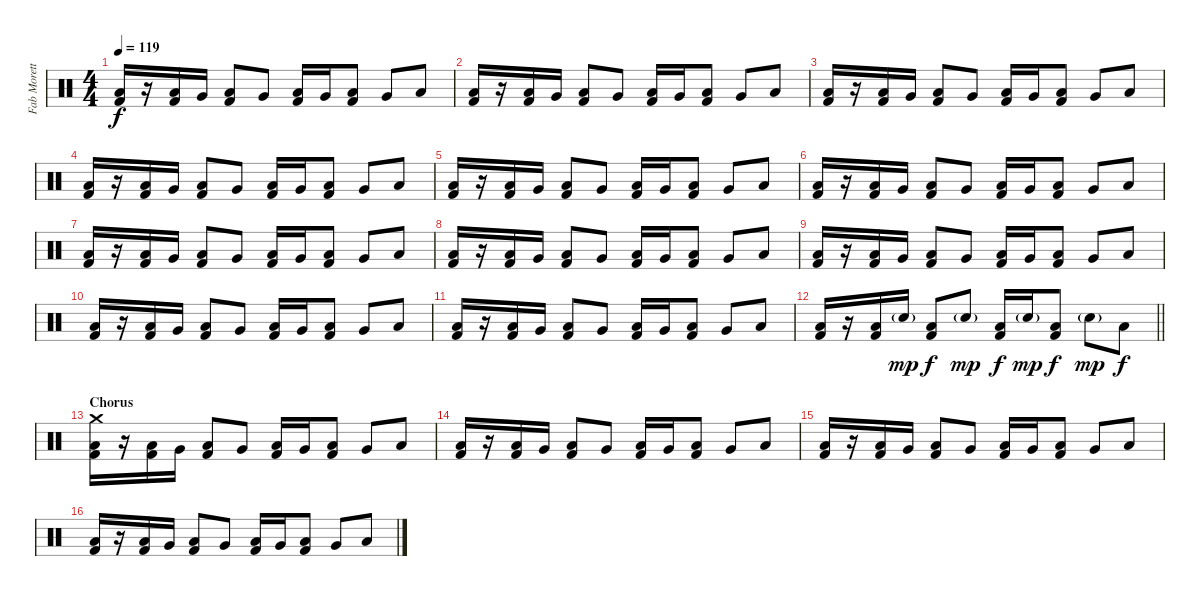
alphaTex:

\track ("Fab Moretti" "Fab Morett") {instrument percussion}
\staff {score}
\articulation defaults
\ts (4 4)
\tempo 119
\clef neutral
\ks c
("Low Floor Tom (hit)" "Kick (hit) 2").16{dy f} r.16 ("Low Floor Tom (hit)" "Kick (hit) 2").16 "Very Low Tom (hit)".16 ("Low Floor Tom (hit)" "Kick (hit) 2").8 "Very Low Tom (hit)".8 ("Low Floor Tom (hit)" "Kick (hit) 2").16 "Very Low Tom (hit)".16 ("Low Floor Tom (hit)" "Kick (hit) 2").8 "Very Low Tom (hit)".8 "Low Floor Tom (hit)".8 |
("Low Floor Tom (hit)" "Kick (hit) 2").16 r.16 ("Low Floor Tom (hit)" "Kick (hit) 2").16 "Very Low Tom (hit)".16 ("Low Floor Tom (hit)" "Kick (hit) 2").8 "Very Low Tom (hit)".8 ("Low Floor Tom (hit)" "Kick (hit) 2").16 "Very Low Tom (hit)".16 ("Low Floor Tom (hit)" "Kick (hit) 2").8 "Very Low Tom (hit)".8 "Low Floor Tom (hit)".8 |
("Low Floor Tom (hit)" "Kick (hit) 2").16 r.16 ("Low Floor Tom (hit)" "Kick (hit) 2").16 "Very Low Tom (hit)".16 ("Low Floor Tom (hit)" "Kick (hit) 2").8 "Very Low Tom (hit)".8 ("Low Floor Tom (hit)" "Kick (hit) 2").16 "Very Low Tom (hit)".16 ("Low Floor Tom (hit)" "Kick (hit) 2").8 "Very Low Tom (hit)".8 "Low Floor Tom (hit)".8 |
("Low Floor Tom (hit)" "Kick (hit) 2").16 r.16 ("Low Floor Tom (hit)" "Kick (hit) 2").16 "Very Low Tom (hit)".16 ("Low Floor Tom (hit)" "Kick (hit) 2").8 "Very Low Tom (hit)".8 ("Low Floor Tom (hit)" "Kick (hit) 2").16 "Very Low Tom (hit)".16 ("Low Floor Tom (hit)" "Kick (hit) 2").8 "Very Low Tom (hit)".8 "Low Floor Tom (hit)".8 |
("Low Floor Tom (hit)" "Kick (hit) 2").16 r.16 ("Low Floor Tom (hit)" "Kick (hit) 2").16 "Very Low Tom (hit)".16 ("Low Floor Tom (hit)" "Kick (hit) 2").8 "Very Low Tom (hit)".8 ("Low Floor Tom (hit)" "Kick (hit) 2").16 "Very Low Tom (hit)".16 ("Low Floor Tom (hit)" "Kick (hit) 2").8 "Very Low Tom (hit)".8 "Low Floor Tom (hit)".8 |
("Low Floor Tom (hit)" "Kick (hit) 2").16 r.16 ("Low Floor Tom (hit)" "Kick (hit) 2").16 "Very Low Tom (hit)".16 ("Low Floor Tom (hit)" "Kick (hit) 2").8 "Very Low Tom (hit)".8 ("Low Floor Tom (hit)" "Kick (hit) 2").16 "Very Low Tom (hit)".16 ("Low Floor Tom (hit)" "Kick (hit) 2").8 "Very Low Tom (hit)".8 "Low Floor Tom (hit)".8 |
("Low Floor Tom (hit)" "Kick (hit) 2").16 r.16 ("Low Floor Tom (hit)" "Kick (hit) 2").16 "Very Low Tom (hit)".16 ("Low Floor Tom (hit)" "Kick (hit) 2").8 "Very Low Tom (hit)".8 ("Low Floor Tom (hit)" "Kick (hit) 2").16 "Very Low Tom (hit)".16 ("Low Floor Tom (hit)" "Kick (hit) 2").8 "Very Low Tom (hit)".8 "Low Floor Tom (hit)".8 |
("Low Floor Tom (hit)" "Kick (hit) 2").16 r.16 ("Low Floor Tom (hit)" "Kick (hit) 2").16 "Very Low Tom (hit)".16 ("Low Floor Tom (hit)" "Kick (hit) 2").8 "Very Low Tom (hit)".8 ("Low Floor Tom (hit)" "Kick (hit) 2").16 "Very Low Tom (hit)".16 ("Low Floor Tom (hit)" "Kick (hit) 2").8 "Very Low Tom (hit)".8 "Low Floor Tom (hit)".8 |
("Low Floor Tom (hit)" "Kick (hit) 2").16 r.16 ("Low Floor Tom (hit)" "Kick (hit) 2").16 "Very Low Tom (hit)".16 ("Low Floor Tom (hit)" "Kick (hit) 2").8 "Very Low Tom (hit)".8 ("Low Floor Tom (hit)" "Kick (hit) 2").16 "Very Low Tom (hit)".16 ("Low Floor Tom (hit)" "Kick (hit) 2").8 "Very Low Tom (hit)".8 "Low Floor Tom (hit)".8 |
("Low Floor Tom (hit)" "Kick (hit) 2").16 r.16 ("Low Floor Tom (hit)" "Kick (hit) 2").16 "Very Low Tom (hit)".16 ("Low Floor Tom (hit)" "Kick (hit) 2").8 "Very Low Tom (hit)".8 ("Low Floor Tom (hit)" "Kick (hit) 2").16 "Very Low Tom (hit)".16 ("Low Floor Tom (hit)" "Kick (hit) 2").8 "Very Low Tom (hit)".8 "Low Floor Tom (hit)".8 |
("Low Floor Tom (hit)" "Kick (hit) 2").16 r.16 ("Low Floor Tom (hit)" "Kick (hit) 2").16 "Very Low Tom (hit)".16 ("Low Floor Tom (hit)" "Kick (hit) 2").8 "Very Low Tom (hit)".8 ("Low Floor Tom (hit)" "Kick (hit) 2").16 "Very Low Tom (hit)".16 ("Low Floor Tom (hit)" "Kick (hit) 2").8 "Very Low Tom (hit)".8 "Low Floor Tom (hit)".8 |
\barLineRight lightlight
("Low Floor Tom (hit)" "Kick (hit) 2").16 r.16 ("Low Floor Tom (hit)" "Kick (hit) 2").16 "Snare (hit) 2"{g}.16{dy mp} ("Low Floor Tom (hit)" "Kick (hit) 2").8{dy f} "Snare (hit) 2"{g}.8{dy mp} ("Low Floor Tom (hit)" "Kick (hit) 2").16{dy f} "Snare (hit) 2"{g}.16{dy mp} ("Low Floor Tom (hit)" "Kick (hit) 2").8{dy f} "Snare (hit) 2"{g}.8{dy mp} "Low Floor Tom (hit)".8{dy f} |
\section ("" "Chorus")
("Crash medium (hit)" "Low Floor Tom (hit)" "Kick (hit) 2").16 r.16 ("Low Floor Tom (hit)" "Kick (hit) 2").16 "Very Low Tom (hit)".16 ("Low Floor Tom (hit)" "Kick (hit) 2").8 "Very Low Tom (hit)".8 ("Low Floor Tom (hit)" "Kick (hit) 2").16 "Very Low Tom (hit)".16 ("Low Floor Tom (hit)" "Kick (hit) 2").8 "Very Low Tom (hit)".8 "Low Floor Tom (hit)".8 |
("Low Floor Tom (hit)" "Kick (hit) 2").16 r.16 ("Low Floor Tom (hit)" "Kick (hit) 2").16 "Very Low Tom (hit)".16 ("Low Floor Tom (hit)" "Kick (hit) 2").8 "Very Low Tom (hit)".8 ("Low Floor Tom (hit)" "Kick (hit) 2").16 "Very Low Tom (hit)".16 ("Low Floor Tom (hit)" "Kick (hit) 2").8 "Very Low Tom (hit)".8 "Low Floor Tom (hit)".8 |
("Low Floor Tom (hit)" "Kick (hit) 2").16 r.16 ("Low Floor Tom (hit)" "Kick (hit) 2").16 "Very Low Tom (hit)".16 ("Low Floor Tom (hit)" "Kick (hit) 2").8 "Very Low Tom (hit)".8 ("Low Floor Tom (hit)" "Kick (hit) 2").16 "Very Low Tom (hit)".16 ("Low Floor Tom (hit)" "Kick (hit) 2").8 "Very Low Tom (hit)".8 "Low Floor Tom (hit)".8 |
("Low Floor Tom (hit)" "Kick (hit) 2").16 r.16 ("Low Floor Tom (hit)" "Kick (hit) 2").16 "Very Low Tom (hit)".16 ("Low Floor Tom (hit)" "Kick (hit) 2").8 "Very Low Tom (hit)".8 ("Low Floor Tom (hit)" "Kick (hit) 2").16 "Very Low Tom (hit)".16 ("Low Floor Tom (hit)" "Kick (hit) 2").8 "Very Low Tom (hit)".8 "Low Floor Tom (hit)".8
